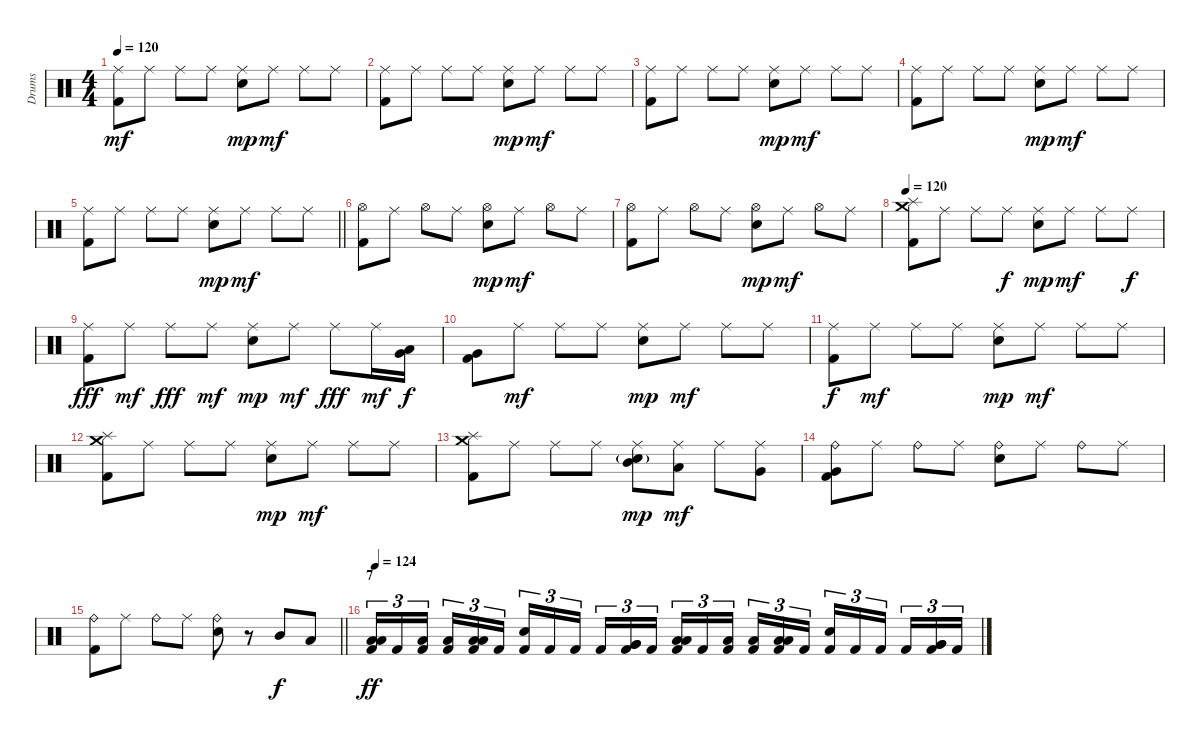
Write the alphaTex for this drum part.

\track ("Drums" "Drums") {instrument percussion}
\staff {score}
\articulation defaults
\ts (4 4)
\tempo 120
\clef neutral
\ks c
("Ride (middle)" "Kick (hit) 2").8{dy mf} "Ride (middle)".8 "Ride (middle)".8 "Ride (middle)".8 ("Ride (middle)" "Electric Snare (hit)").8{dy mp} "Ride (middle)".8{dy mf} "Ride (middle)".8 "Ride (middle)".8 |
("Ride (middle)" "Kick (hit) 2").8 "Ride (middle)".8 "Ride (middle)".8 "Ride (middle)".8 ("Ride (middle)" "Electric Snare (hit)").8{dy mp} "Ride (middle)".8{dy mf} "Ride (middle)".8 "Ride (middle)".8 |
("Ride (middle)" "Kick (hit) 2").8 "Ride (middle)".8 "Ride (middle)".8 "Ride (middle)".8 ("Ride (middle)" "Electric Snare (hit)").8{dy mp} "Ride (middle)".8{dy mf} "Ride (middle)".8 "Ride (middle)".8 |
("Ride (middle)" "Kick (hit) 2").8 "Ride (middle)".8 "Ride (middle)".8 "Ride (middle)".8 ("Ride (middle)" "Electric Snare (hit)").8{dy mp} "Ride (middle)".8{dy mf} "Ride (middle)".8 "Ride (middle)".8 |
\barLineRight lightlight
("Ride (middle)" "Kick (hit) 2").8 "Ride (middle)".8 "Ride (middle)".8 "Ride (middle)".8 ("Ride (middle)" "Electric Snare (hit)").8{dy mp} "Ride (middle)".8{dy mf} "Ride (middle)".8 "Ride (middle)".8 |
("Hi-Hat (open)" "Kick (hit) 2").8 "Ride (middle)".8 "Hi-Hat (open)".8 "Ride (middle)".8 ("Hi-Hat (open)" "Electric Snare (hit)").8{dy mp} "Ride (middle)".8{dy mf} "Hi-Hat (open)".8 "Ride (middle)".8 |
("Hi-Hat (open)" "Kick (hit) 2").8 "Ride (middle)".8 "Hi-Hat (open)".8 "Ride (middle)".8 ("Hi-Hat (open)" "Electric Snare (hit)").8{dy mp} "Ride (middle)".8{dy mf} "Hi-Hat (open)".8 "Ride (middle)".8 |
\tempo 120
("Splash (hit)" "Crash medium (hit)" "Kick (hit) 2").8 "Ride (middle)".8 "Ride (middle)".8 "Ride (middle)".8{dy f} ("Ride (middle)" "Electric Snare (hit)").8{dy mp} "Ride (middle)".8{dy mf} "Ride (middle)".8 "Ride (middle)".8{dy f} |
("Ride (middle)" "Kick (hit) 2").8{dy fff} "Ride (middle)".8{dy mf} "Ride (middle)".8{dy fff} "Ride (middle)".8{dy mf} ("Ride (middle)" "Electric Snare (hit)").8{dy mp} "Ride (middle)".8{dy mf} "Ride (middle)".8{dy fff} "Ride (middle)".16{dy mf} ("Low Tom (hit)" "Very Low Tom (hit)").16{dy f} |
("Very Low Tom (hit)" "Kick (hit) 2").8 "Ride (middle)".8{dy mf} "Ride (middle)".8 "Ride (middle)".8 ("Ride (middle)" "Electric Snare (hit)").8{dy mp} "Ride (middle)".8{dy mf} "Ride (middle)".8 "Ride (middle)".8 |
("Ride (middle)" "Kick (hit) 2").8{dy f} "Ride (middle)".8{dy mf} "Ride (middle)".8 "Ride (middle)".8 ("Ride (middle)" "Electric Snare (hit)").8{dy mp} "Ride (middle)".8{dy mf} "Ride (middle)".8 "Ride (middle)".8 |
("Splash (hit)" "Crash medium (hit)" "Kick (hit) 2").8 "Ride (middle)".8 "Ride (middle)".8 "Ride (middle)".8 ("Ride (middle)" "Electric Snare (hit)").8{dy mp} "Ride (middle)".8{dy mf} "Ride (middle)".8 "Ride (middle)".8 |
("Splash (hit)" "Crash medium (hit)" "Kick (hit) 2").8 "Ride (middle)".8 "Ride (middle)".8 "Ride (middle)".8 ("Ride (middle)" "Mid Tom (hit)" "Electric Snare (hit)"{g}).8{dy mp} ("Ride (middle)" "Low Tom (hit)").8{dy mf} "Ride (middle)".8 ("Ride (middle)" "Very Low Tom (hit)").8 |
("Ride (bell)" "Very Low Tom (hit)" "Kick (hit) 2").8 "Ride (middle)".8 "Ride (bell)".8 "Ride (middle)".8 ("Ride (bell)" "Electric Snare (hit)").8 "Ride (middle)".8 "Ride (bell)".8 "Ride (middle)".8 |
\barLineRight lightlight
("Ride (bell)" "Kick (hit) 2").8 "Ride (middle)".8 "Ride (bell)".8 "Ride (middle)".8 ("Ride (bell)" "Electric Snare (hit)").8 r.8 "Mid Tom (hit)".8{dy f} "Low Tom (hit)".8 |
\section ("" "7")
\tempo 124
("Low Tom (hit)" "Low Tom (hit)" "Kick (hit) 2").16{tu (3 2) dy ff} "Kick (hit) 2".16{tu (3 2)} ("Low Tom (hit)" "Kick (hit) 2").16{tu (3 2)} ("Low Tom (hit)" "Kick (hit) 2").16{tu (3 2)} ("Low Tom (hit)" "Low Tom (hit)" "Kick (hit) 2").16{tu (3 2)} "Kick (hit) 2".16{tu (3 2)} ("Electric Snare (hit)" "Kick (hit) 2").16{tu (3 2)} "Kick (hit) 2".16{tu (3 2)} "Kick (hit) 2".16{tu (3 2)} "Kick (hit) 2".16{tu (3 2)} ("Very Low Tom (hit)" "Very Low Tom (hit)" "Kick (hit) 2").16{tu (3 2)} "Kick (hit) 2".16{tu (3 2)} ("Low Tom (hit)" "Low Tom (hit)" "Kick (hit) 2").16{tu (3 2)} "Kick (hit) 2".16{tu (3 2)} ("Low Tom (hit)" "Kick (hit) 2").16{tu (3 2)} ("Low Tom (hit)" "Kick (hit) 2").16{tu (3 2)} ("Low Tom (hit)" "Low Tom (hit)" "Kick (hit) 2").16{tu (3 2)} "Kick (hit) 2".16{tu (3 2)} ("Electric Snare (hit)" "Kick (hit) 2").16{tu (3 2)} "Kick (hit) 2".16{tu (3 2)} "Kick (hit) 2".16{tu (3 2)} "Kick (hit) 2".16{tu (3 2)} ("Very Low Tom (hit)" "Very Low Tom (hit)" "Kick (hit) 2").16{tu (3 2)} "Kick (hit) 2".16{tu (3 2)}
